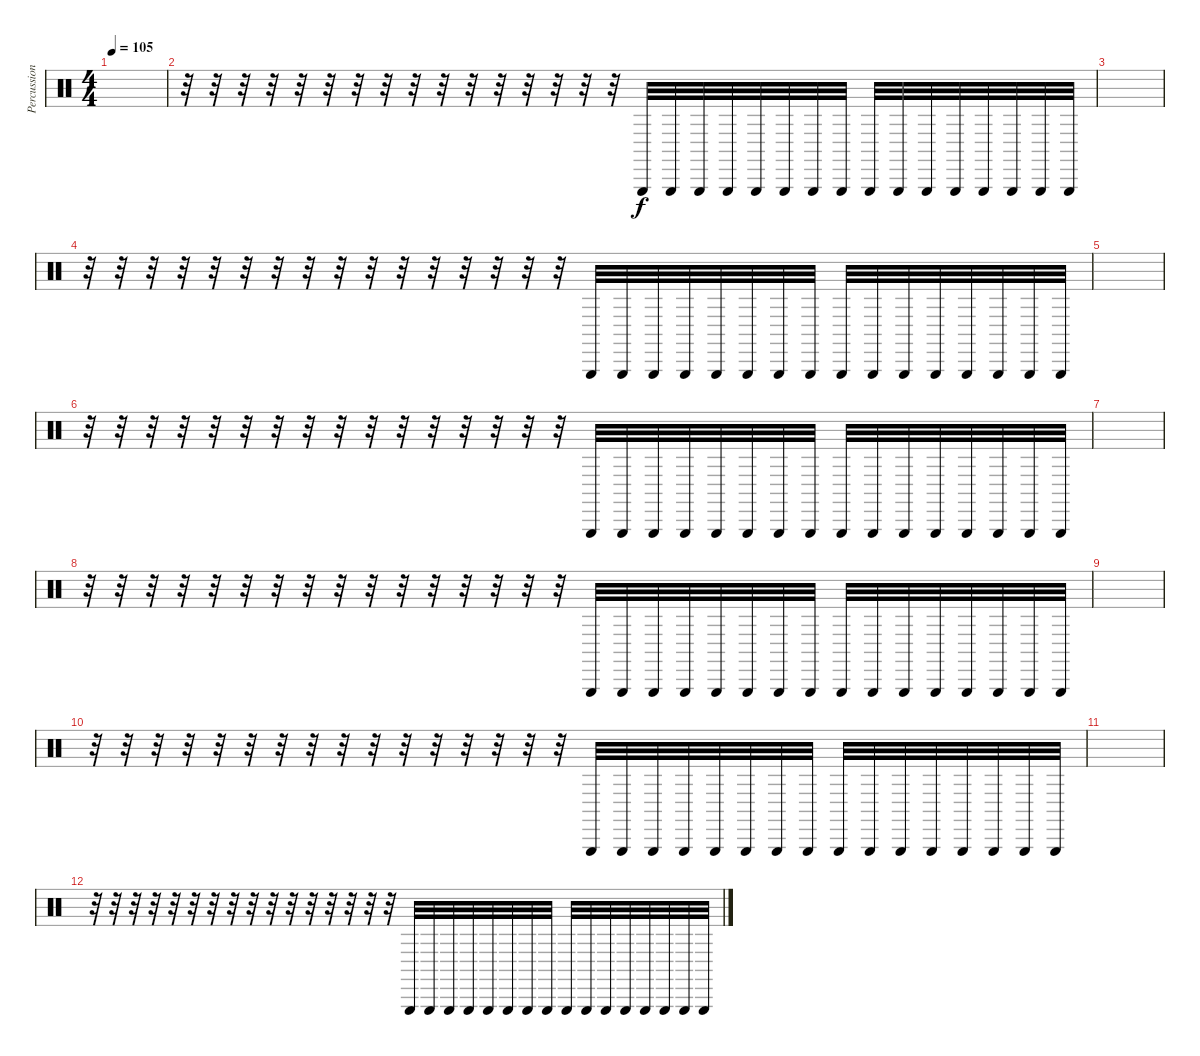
\track ("Percussion" "Percussion") {instrument percussion}
\staff {score}
\articulation defaults
\ts (4 4)
\tempo 105
\clef neutral
\ks c
|
r.32 r.32 r.32 r.32 r.32 r.32 r.32 r.32 r.32 r.32 r.32 r.32 r.32 r.32 r.32 r.32 "Triangle (hit)".32{balance 4} "Triangle (hit)".32{balance 5} "Triangle (hit)".32{balance 11} "Triangle (hit)".32{balance 8} "Triangle (hit)".32{balance 3} "Triangle (hit)".32{balance 7} "Triangle (hit)".32{balance 14} "Triangle (hit)".32{balance 10} "Triangle (hit)".32{balance 5} "Triangle (hit)".32{balance 5} "Triangle (hit)".32{balance 13} "Triangle (hit)".32{balance 11} "Triangle (hit)".32{balance 8} "Triangle (hit)".32{balance 5} "Triangle (hit)".32{balance 4} "Triangle (hit)".32{balance 8} |
|
r.32 r.32 r.32 r.32 r.32 r.32 r.32 r.32 r.32 r.32 r.32 r.32 r.32 r.32 r.32 r.32 "Triangle (hit)".32{balance 4} "Triangle (hit)".32{balance 5} "Triangle (hit)".32{balance 11} "Triangle (hit)".32{balance 8} "Triangle (hit)".32{balance 3} "Triangle (hit)".32{balance 7} "Triangle (hit)".32{balance 14} "Triangle (hit)".32{balance 10} "Triangle (hit)".32{balance 5} "Triangle (hit)".32{balance 5} "Triangle (hit)".32{balance 13} "Triangle (hit)".32{balance 11} "Triangle (hit)".32{balance 8} "Triangle (hit)".32{balance 5} "Triangle (hit)".32{balance 4} "Triangle (hit)".32{balance 8} |
|
r.32 r.32 r.32 r.32 r.32 r.32 r.32 r.32 r.32 r.32 r.32 r.32 r.32 r.32 r.32 r.32 "Triangle (hit)".32{balance 4} "Triangle (hit)".32{balance 5} "Triangle (hit)".32{balance 11} "Triangle (hit)".32{balance 8} "Triangle (hit)".32{balance 3} "Triangle (hit)".32{balance 7} "Triangle (hit)".32{balance 14} "Triangle (hit)".32{balance 10} "Triangle (hit)".32{balance 5} "Triangle (hit)".32{balance 5} "Triangle (hit)".32{balance 13} "Triangle (hit)".32{balance 11} "Triangle (hit)".32{balance 8} "Triangle (hit)".32{balance 5} "Triangle (hit)".32{balance 4} "Triangle (hit)".32{balance 8} |
|
r.32 r.32 r.32 r.32 r.32 r.32 r.32 r.32 r.32 r.32 r.32 r.32 r.32 r.32 r.32 r.32 "Triangle (hit)".32{balance 4} "Triangle (hit)".32{balance 5} "Triangle (hit)".32{balance 11} "Triangle (hit)".32{balance 8} "Triangle (hit)".32{balance 3} "Triangle (hit)".32{balance 7} "Triangle (hit)".32{balance 14} "Triangle (hit)".32{balance 10} "Triangle (hit)".32{balance 5} "Triangle (hit)".32{balance 5} "Triangle (hit)".32{balance 13} "Triangle (hit)".32{balance 11} "Triangle (hit)".32{balance 8} "Triangle (hit)".32{balance 5} "Triangle (hit)".32{balance 4} "Triangle (hit)".32{balance 8} |
|
r.32 r.32 r.32 r.32 r.32 r.32 r.32 r.32 r.32 r.32 r.32 r.32 r.32 r.32 r.32 r.32 "Triangle (hit)".32{balance 4} "Triangle (hit)".32{balance 5} "Triangle (hit)".32{balance 11} "Triangle (hit)".32{balance 8} "Triangle (hit)".32{balance 3} "Triangle (hit)".32{balance 7} "Triangle (hit)".32{balance 14} "Triangle (hit)".32{balance 10} "Triangle (hit)".32{balance 5} "Triangle (hit)".32{balance 5} "Triangle (hit)".32{balance 13} "Triangle (hit)".32{balance 11} "Triangle (hit)".32{balance 8} "Triangle (hit)".32{balance 5} "Triangle (hit)".32{balance 4} "Triangle (hit)".32{balance 8} |
|
r.32 r.32 r.32 r.32 r.32 r.32 r.32 r.32 r.32 r.32 r.32 r.32 r.32 r.32 r.32 r.32 "Triangle (hit)".32{balance 4} "Triangle (hit)".32{balance 5} "Triangle (hit)".32{balance 11} "Triangle (hit)".32{balance 8} "Triangle (hit)".32{balance 3} "Triangle (hit)".32{balance 7} "Triangle (hit)".32{balance 14} "Triangle (hit)".32{balance 10} "Triangle (hit)".32{balance 5} "Triangle (hit)".32{balance 5} "Triangle (hit)".32{balance 13} "Triangle (hit)".32{balance 11} "Triangle (hit)".32{balance 8} "Triangle (hit)".32{balance 5} "Triangle (hit)".32{balance 4} "Triangle (hit)".32{balance 8}
